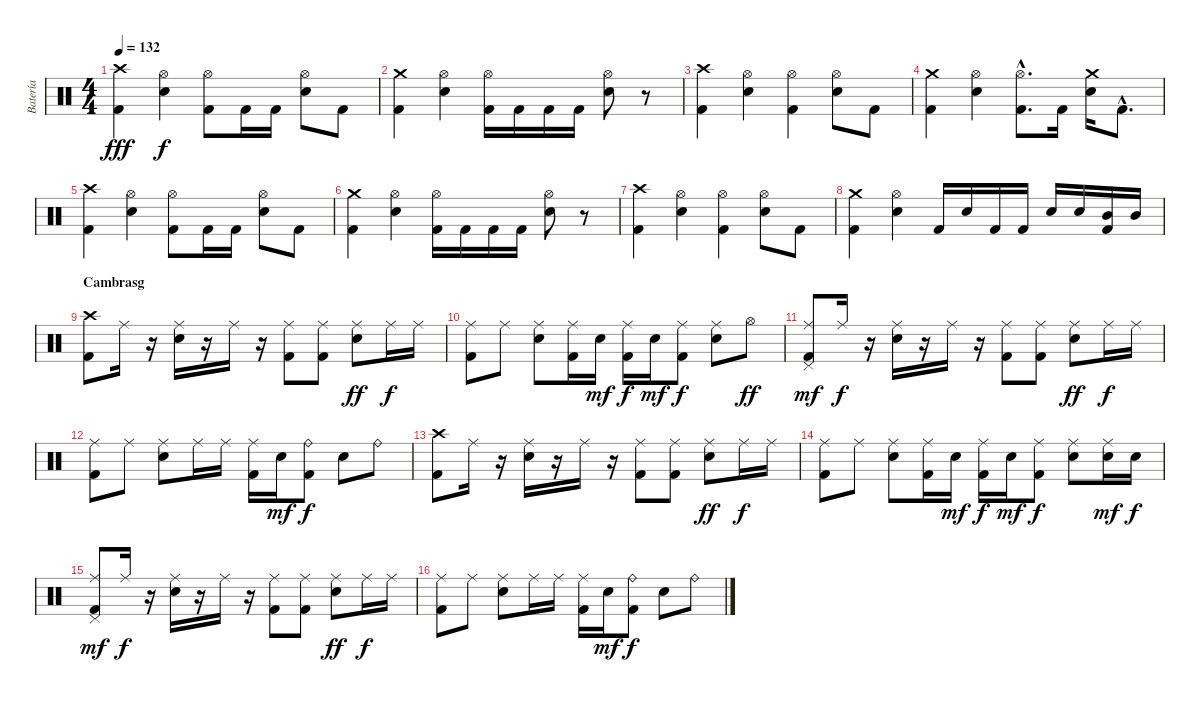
\track ("Batería" "Batería") {instrument percussion}
\staff {score}
\articulation defaults
\ts (4 4)
\tempo 132
\clef neutral
\ks c
("Crash high (hit)" "Kick (hit) 2").4{dy fff} ("Hi-Hat (open)" "Snare (hit) 2").4{dy f} ("Hi-Hat (open)" "Kick (hit) 2").8 "Kick (hit) 2".16 "Kick (hit) 2".16 ("Hi-Hat (open)" "Snare (hit) 2").8 "Kick (hit) 2".8 |
("Crash medium (hit)" "Kick (hit) 2").4 ("Hi-Hat (open)" "Snare (hit) 2").4 ("Hi-Hat (open)" "Kick (hit) 2").16 "Kick (hit) 2".16 "Kick (hit) 2".16 "Kick (hit) 2".16 ("Hi-Hat (open)" "Snare (hit) 2").8 r.8 |
("Crash high (hit)" "Kick (hit) 2").4 ("Hi-Hat (open)" "Snare (hit) 2").4 ("Hi-Hat (open)" "Kick (hit) 2").4 ("Hi-Hat (open)" "Snare (hit) 2").8 "Kick (hit) 2".8 |
("Crash medium (hit)" "Kick (hit) 2").4 ("Hi-Hat (open)" "Snare (hit) 2").4 ("Hi-Hat (open)"{hac} "Kick (hit) 2"{hac}).8{d} "Kick (hit) 2".16 ("Crash medium (hit)" "Snare (hit) 2").16 "Kick (hit) 2"{hac}.8{d} |
("Crash high (hit)" "Kick (hit) 2").4 ("Hi-Hat (open)" "Snare (hit) 2").4 ("Hi-Hat (open)" "Kick (hit) 2").8 "Kick (hit) 2".16 "Kick (hit) 2".16 ("Hi-Hat (open)" "Snare (hit) 2").8 "Kick (hit) 2".8 |
("Crash medium (hit)" "Kick (hit) 2").4 ("Hi-Hat (open)" "Snare (hit) 2").4 ("Hi-Hat (open)" "Kick (hit) 2").16 "Kick (hit) 2".16 "Kick (hit) 2".16 "Kick (hit) 2".16 ("Hi-Hat (open)" "Snare (hit) 2").8 r.8 |
("Crash high (hit)" "Kick (hit) 2").4 ("Hi-Hat (open)" "Snare (hit) 2").4 ("Hi-Hat (open)" "Kick (hit) 2").4 ("Hi-Hat (open)" "Snare (hit) 2").8 "Kick (hit) 2".8 |
("Crash medium (hit)" "Kick (hit) 2").4 ("Hi-Hat (open)" "Snare (hit) 2").4 "Kick (hit) 2".16 "Snare (hit) 2".16 "Kick (hit) 2".16 "Kick (hit) 2".16 "Snare (hit) 2".16 "Snare (hit) 2".16 ("Kick (hit) 2" "Mid Tom (hit)").16 "Mid Tom (hit)".16 |
\section ("" "Cambrasg")
("Crash high (hit)" "Kick (hit) 2").8 "Ride (middle)".16 r.16 ("Ride (middle)" "Snare (hit) 2").16 r.16 "Ride (middle)".16 r.16 ("Ride (middle)" "Kick (hit) 2").8 ("Ride (middle)" "Kick (hit) 2").8 ("Ride (middle)" "Snare (hit) 2").8{dy ff} "Ride (middle)".16{dy f} "Ride (middle)".16 |
("Ride (middle)" "Kick (hit) 2").8 "Ride (middle)".8 ("Ride (middle)" "Snare (hit) 2").8 ("Ride (middle)" "Kick (hit) 2").16 "Snare (hit) 2".16{dy mf} ("Ride (middle)" "Kick (hit) 2").16{dy f} "Snare (hit) 2".16{dy mf} ("Ride (middle)" "Kick (hit) 2").8{dy f} ("Ride (middle)" "Snare (hit) 2").8 "Hi-Hat (open)".8{dy ff} |
("Pedal Hi-Hat (hit)" "Ride (middle)" "Kick (hit) 2").8{dy mf} "Ride (middle)".16{dy f} r.16 ("Ride (middle)" "Snare (hit) 2").16 r.16 "Ride (middle)".16 r.16 ("Ride (middle)" "Kick (hit) 2").8 ("Ride (middle)" "Kick (hit) 2").8 ("Ride (middle)" "Snare (hit) 2").8{dy ff} "Ride (middle)".16{dy f} "Ride (middle)".16 |
("Ride (middle)" "Kick (hit) 2").8 "Ride (middle)".8 ("Ride (middle)" "Snare (hit) 2").8 "Ride (middle)".16 "Ride (middle)".16 ("Ride (middle)" "Kick (hit) 2").16 "Snare (hit) 2".16{dy mf} ("Ride (bell)" "Kick (hit) 2").8{dy f} "Snare (hit) 2".8 "Ride (bell)".8 |
("Crash high (hit)" "Kick (hit) 2").8 "Ride (middle)".16 r.16 ("Ride (middle)" "Snare (hit) 2").16 r.16 "Ride (middle)".16 r.16 ("Ride (middle)" "Kick (hit) 2").8 ("Ride (middle)" "Kick (hit) 2").8 ("Ride (middle)" "Snare (hit) 2").8{dy ff} "Ride (middle)".16{dy f} "Ride (middle)".16 |
("Ride (middle)" "Kick (hit) 2").8 "Ride (middle)".8 ("Ride (middle)" "Snare (hit) 2").8 ("Ride (middle)" "Kick (hit) 2").16 "Snare (hit) 2".16{dy mf} ("Ride (middle)" "Kick (hit) 2").16{dy f} "Snare (hit) 2".16{dy mf} ("Ride (middle)" "Kick (hit) 2").8{dy f} ("Ride (middle)" "Snare (hit) 2").8 ("Ride (middle)" "Snare (hit) 2").16{dy mf} "Snare (hit) 2".16{dy f} |
("Pedal Hi-Hat (hit)" "Ride (middle)" "Kick (hit) 2").8{dy mf} "Ride (middle)".16{dy f} r.16 ("Ride (middle)" "Snare (hit) 2").16 r.16 "Ride (middle)".16 r.16 ("Ride (middle)" "Kick (hit) 2").8 ("Ride (middle)" "Kick (hit) 2").8 ("Ride (middle)" "Snare (hit) 2").8{dy ff} "Ride (middle)".16{dy f} "Ride (middle)".16 |
("Ride (middle)" "Kick (hit) 2").8 "Ride (middle)".8 ("Ride (middle)" "Snare (hit) 2").8 "Ride (middle)".16 "Ride (middle)".16 ("Ride (middle)" "Kick (hit) 2").16 "Snare (hit) 2".16{dy mf} ("Ride (bell)" "Kick (hit) 2").8{dy f} "Snare (hit) 2".8 "Ride (bell)".8
